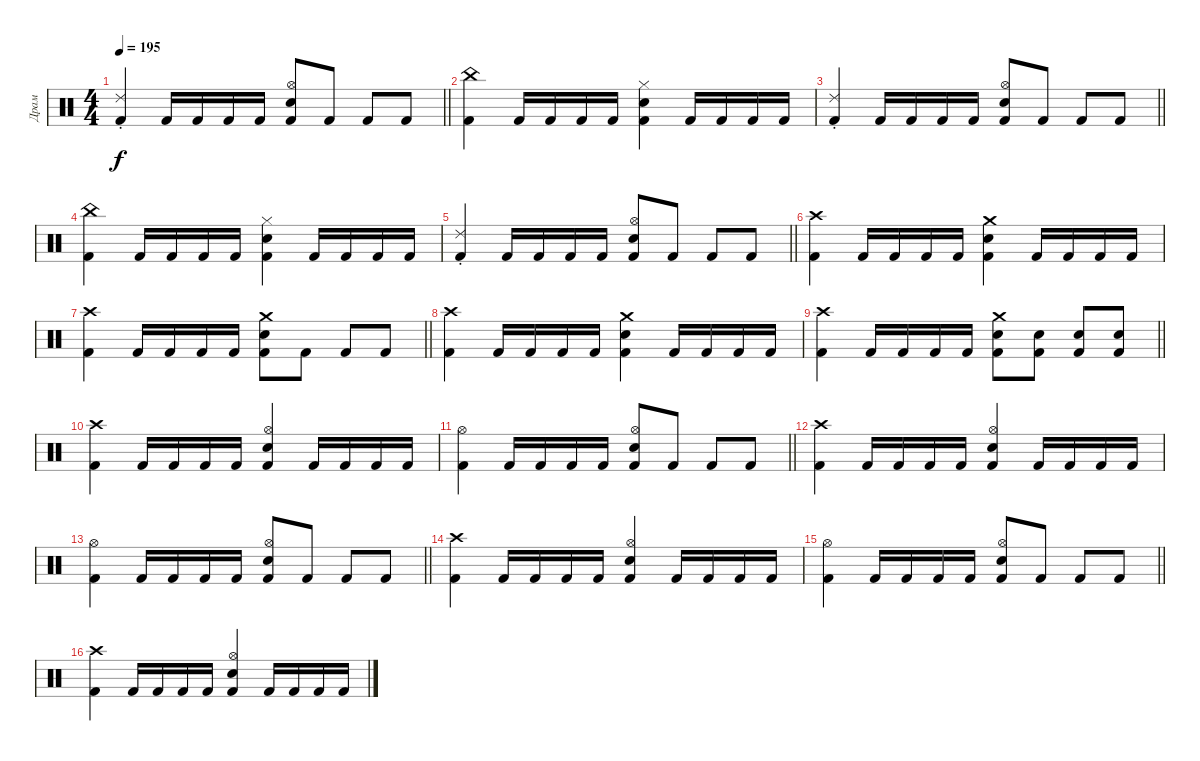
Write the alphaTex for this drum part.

\track ("Драм" "Драм") {instrument percussion}
\staff {score}
\articulation defaults
\ts (4 4)
\tempo 195
\clef neutral
\barLineRight lightlight
\ks c
("Kick (hit) 2" "Ride (choke) 2").4{dy f} "Kick (hit) 2".16 "Kick (hit) 2".16 "Kick (hit) 2".16 "Kick (hit) 2".16 ("Hi-Hat (open)" "Snare (hit) 2" "Kick (hit) 2").8 "Kick (hit) 2".8 "Kick (hit) 2".8 "Kick (hit) 2".8 |
("Kick (hit) 2" "China (hit)").4 "Kick (hit) 2".16 "Kick (hit) 2".16 "Kick (hit) 2".16 "Kick (hit) 2".16 ("Snare (hit) 2" "Kick (hit) 2" "Hi-Hat (closed)").4 "Kick (hit) 2".16 "Kick (hit) 2".16 "Kick (hit) 2".16 "Kick (hit) 2".16 |
\barLineRight lightlight
("Kick (hit) 2" "Ride (choke) 2").4 "Kick (hit) 2".16 "Kick (hit) 2".16 "Kick (hit) 2".16 "Kick (hit) 2".16 ("Hi-Hat (open)" "Snare (hit) 2" "Kick (hit) 2").8 "Kick (hit) 2".8 "Kick (hit) 2".8 "Kick (hit) 2".8 |
("Kick (hit) 2" "China (hit)").4 "Kick (hit) 2".16 "Kick (hit) 2".16 "Kick (hit) 2".16 "Kick (hit) 2".16 ("Snare (hit) 2" "Kick (hit) 2" "Hi-Hat (closed)").4 "Kick (hit) 2".16 "Kick (hit) 2".16 "Kick (hit) 2".16 "Kick (hit) 2".16 |
\barLineRight lightlight
("Kick (hit) 2" "Ride (choke) 2").4 "Kick (hit) 2".16 "Kick (hit) 2".16 "Kick (hit) 2".16 "Kick (hit) 2".16 ("Hi-Hat (open)" "Snare (hit) 2" "Kick (hit) 2").8 "Kick (hit) 2".8 "Kick (hit) 2".8 "Kick (hit) 2".8 |
("Kick (hit) 2" "Crash high (hit)").4 "Kick (hit) 2".16 "Kick (hit) 2".16 "Kick (hit) 2".16 "Kick (hit) 2".16 ("Snare (hit) 2" "Kick (hit) 2" "Crash medium (hit)").4 "Kick (hit) 2".16 "Kick (hit) 2".16 "Kick (hit) 2".16 "Kick (hit) 2".16 |
\barLineRight lightlight
("Kick (hit) 2" "Crash high (hit)").4 "Kick (hit) 2".16 "Kick (hit) 2".16 "Kick (hit) 2".16 "Kick (hit) 2".16 ("Snare (hit) 2" "Kick (hit) 2" "Crash medium (hit)").8 "Kick (hit) 2".8 "Kick (hit) 2".8 "Kick (hit) 2".8 |
("Kick (hit) 2" "Crash high (hit)").4 "Kick (hit) 2".16 "Kick (hit) 2".16 "Kick (hit) 2".16 "Kick (hit) 2".16 ("Snare (hit) 2" "Kick (hit) 2" "Crash medium (hit)").4 "Kick (hit) 2".16 "Kick (hit) 2".16 "Kick (hit) 2".16 "Kick (hit) 2".16 |
\barLineRight lightlight
("Kick (hit) 2" "Crash high (hit)").4 "Kick (hit) 2".16 "Kick (hit) 2".16 "Kick (hit) 2".16 "Kick (hit) 2".16 ("Snare (hit) 2" "Kick (hit) 2" "Crash medium (hit)").8 ("Snare (hit) 2" "Kick (hit) 2").8 ("Snare (hit) 2" "Kick (hit) 2").8 ("Snare (hit) 2" "Kick (hit) 2").8 |
("Kick (hit) 2" "Crash high (hit)").4 "Kick (hit) 2".16 "Kick (hit) 2".16 "Kick (hit) 2".16 "Kick (hit) 2".16 ("Hi-Hat (open)" "Snare (hit) 2" "Kick (hit) 2").4 "Kick (hit) 2".16 "Kick (hit) 2".16 "Kick (hit) 2".16 "Kick (hit) 2".16 |
\barLineRight lightlight
("Hi-Hat (open)" "Kick (hit) 2").4 "Kick (hit) 2".16 "Kick (hit) 2".16 "Kick (hit) 2".16 "Kick (hit) 2".16 ("Hi-Hat (open)" "Snare (hit) 2" "Kick (hit) 2").8 "Kick (hit) 2".8 "Kick (hit) 2".8 "Kick (hit) 2".8 |
("Kick (hit) 2" "Crash high (hit)").4 "Kick (hit) 2".16 "Kick (hit) 2".16 "Kick (hit) 2".16 "Kick (hit) 2".16 ("Hi-Hat (open)" "Snare (hit) 2" "Kick (hit) 2").4 "Kick (hit) 2".16 "Kick (hit) 2".16 "Kick (hit) 2".16 "Kick (hit) 2".16 |
\barLineRight lightlight
("Hi-Hat (open)" "Kick (hit) 2").4 "Kick (hit) 2".16 "Kick (hit) 2".16 "Kick (hit) 2".16 "Kick (hit) 2".16 ("Hi-Hat (open)" "Snare (hit) 2" "Kick (hit) 2").8 "Kick (hit) 2".8 "Kick (hit) 2".8 "Kick (hit) 2".8 |
("Kick (hit) 2" "Crash high (hit)").4 "Kick (hit) 2".16 "Kick (hit) 2".16 "Kick (hit) 2".16 "Kick (hit) 2".16 ("Hi-Hat (open)" "Snare (hit) 2" "Kick (hit) 2").4 "Kick (hit) 2".16 "Kick (hit) 2".16 "Kick (hit) 2".16 "Kick (hit) 2".16 |
\barLineRight lightlight
("Hi-Hat (open)" "Kick (hit) 2").4 "Kick (hit) 2".16 "Kick (hit) 2".16 "Kick (hit) 2".16 "Kick (hit) 2".16 ("Hi-Hat (open)" "Snare (hit) 2" "Kick (hit) 2").8 "Kick (hit) 2".8 "Kick (hit) 2".8 "Kick (hit) 2".8 |
("Kick (hit) 2" "Crash high (hit)").4 "Kick (hit) 2".16 "Kick (hit) 2".16 "Kick (hit) 2".16 "Kick (hit) 2".16 ("Hi-Hat (open)" "Snare (hit) 2" "Kick (hit) 2").4 "Kick (hit) 2".16 "Kick (hit) 2".16 "Kick (hit) 2".16 "Kick (hit) 2".16
